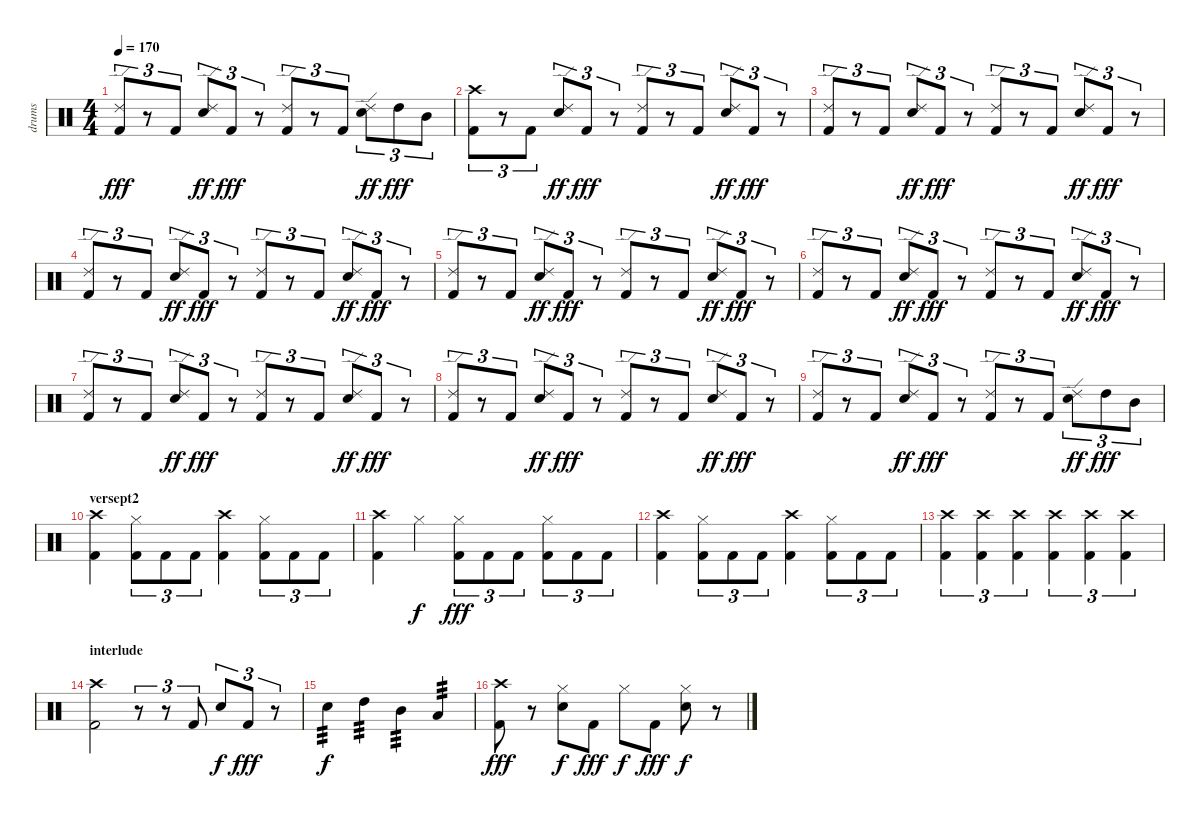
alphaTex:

\track ("drums" "drums") {instrument percussion}
\staff {score}
\articulation defaults
\ts (4 4)
\tempo 170
\clef neutral
\ks c
("Ride (edge) 2" "Kick (hit) 2").8{tu (3 2) dy fff} r.8{tu (3 2)} "Kick (hit) 2".8{tu (3 2)} ("Ride (edge) 2" "Snare (hit) 2").8{tu (3 2) dy ff} "Kick (hit) 2".8{tu (3 2) dy fff} r.8{tu (3 2)} ("Ride (edge) 2" "Kick (hit) 2").8{tu (3 2)} r.8{tu (3 2)} "Kick (hit) 2".8{tu (3 2)} ("Ride (edge) 2" "Snare (hit) 2").8{tu (3 2) dy ff} "High Tom (hit)".8{tu (3 2) dy fff} "Mid Tom (hit)".8{tu (3 2)} |
("Crash high (hit)" "Kick (hit) 2").8{tu (3 2)} r.8{tu (3 2)} "Kick (hit) 2".8{tu (3 2)} ("Ride (edge) 2" "Snare (hit) 2").8{tu (3 2) dy ff} "Kick (hit) 2".8{tu (3 2) dy fff} r.8{tu (3 2)} ("Ride (edge) 2" "Kick (hit) 2").8{tu (3 2)} r.8{tu (3 2)} "Kick (hit) 2".8{tu (3 2)} ("Ride (edge) 2" "Snare (hit) 2").8{tu (3 2) dy ff} "Kick (hit) 2".8{tu (3 2) dy fff} r.8{tu (3 2)} |
("Ride (edge) 2" "Kick (hit) 2").8{tu (3 2)} r.8{tu (3 2)} "Kick (hit) 2".8{tu (3 2)} ("Ride (edge) 2" "Snare (hit) 2").8{tu (3 2) dy ff} "Kick (hit) 2".8{tu (3 2) dy fff} r.8{tu (3 2)} ("Ride (edge) 2" "Kick (hit) 2").8{tu (3 2)} r.8{tu (3 2)} "Kick (hit) 2".8{tu (3 2)} ("Ride (edge) 2" "Snare (hit) 2").8{tu (3 2) dy ff} "Kick (hit) 2".8{tu (3 2) dy fff} r.8{tu (3 2)} |
("Ride (edge) 2" "Kick (hit) 2").8{tu (3 2)} r.8{tu (3 2)} "Kick (hit) 2".8{tu (3 2)} ("Ride (edge) 2" "Snare (hit) 2").8{tu (3 2) dy ff} "Kick (hit) 2".8{tu (3 2) dy fff} r.8{tu (3 2)} ("Ride (edge) 2" "Kick (hit) 2").8{tu (3 2)} r.8{tu (3 2)} "Kick (hit) 2".8{tu (3 2)} ("Ride (edge) 2" "Snare (hit) 2").8{tu (3 2) dy ff} "Kick (hit) 2".8{tu (3 2) dy fff} r.8{tu (3 2)} |
("Ride (edge) 2" "Kick (hit) 2").8{tu (3 2)} r.8{tu (3 2)} "Kick (hit) 2".8{tu (3 2)} ("Ride (edge) 2" "Snare (hit) 2").8{tu (3 2) dy ff} "Kick (hit) 2".8{tu (3 2) dy fff} r.8{tu (3 2)} ("Ride (edge) 2" "Kick (hit) 2").8{tu (3 2)} r.8{tu (3 2)} "Kick (hit) 2".8{tu (3 2)} ("Ride (edge) 2" "Snare (hit) 2").8{tu (3 2) dy ff} "Kick (hit) 2".8{tu (3 2) dy fff} r.8{tu (3 2)} |
("Ride (edge) 2" "Kick (hit) 2").8{tu (3 2)} r.8{tu (3 2)} "Kick (hit) 2".8{tu (3 2)} ("Ride (edge) 2" "Snare (hit) 2").8{tu (3 2) dy ff} "Kick (hit) 2".8{tu (3 2) dy fff} r.8{tu (3 2)} ("Ride (edge) 2" "Kick (hit) 2").8{tu (3 2)} r.8{tu (3 2)} "Kick (hit) 2".8{tu (3 2)} ("Ride (edge) 2" "Snare (hit) 2").8{tu (3 2) dy ff} "Kick (hit) 2".8{tu (3 2) dy fff} r.8{tu (3 2)} |
("Ride (edge) 2" "Kick (hit) 2").8{tu (3 2)} r.8{tu (3 2)} "Kick (hit) 2".8{tu (3 2)} ("Ride (edge) 2" "Snare (hit) 2").8{tu (3 2) dy ff} "Kick (hit) 2".8{tu (3 2) dy fff} r.8{tu (3 2)} ("Ride (edge) 2" "Kick (hit) 2").8{tu (3 2)} r.8{tu (3 2)} "Kick (hit) 2".8{tu (3 2)} ("Ride (edge) 2" "Snare (hit) 2").8{tu (3 2) dy ff} "Kick (hit) 2".8{tu (3 2) dy fff} r.8{tu (3 2)} |
("Ride (edge) 2" "Kick (hit) 2").8{tu (3 2)} r.8{tu (3 2)} "Kick (hit) 2".8{tu (3 2)} ("Ride (edge) 2" "Snare (hit) 2").8{tu (3 2) dy ff} "Kick (hit) 2".8{tu (3 2) dy fff} r.8{tu (3 2)} ("Ride (edge) 2" "Kick (hit) 2").8{tu (3 2)} r.8{tu (3 2)} "Kick (hit) 2".8{tu (3 2)} ("Ride (edge) 2" "Snare (hit) 2").8{tu (3 2) dy ff} "Kick (hit) 2".8{tu (3 2) dy fff} r.8{tu (3 2)} |
("Ride (edge) 2" "Kick (hit) 2").8{tu (3 2)} r.8{tu (3 2)} "Kick (hit) 2".8{tu (3 2)} ("Ride (edge) 2" "Snare (hit) 2").8{tu (3 2) dy ff} "Kick (hit) 2".8{tu (3 2) dy fff} r.8{tu (3 2)} ("Ride (edge) 2" "Kick (hit) 2").8{tu (3 2)} r.8{tu (3 2)} "Kick (hit) 2".8{tu (3 2)} ("Ride (edge) 2" "Snare (hit) 2").8{tu (3 2) dy ff} "High Tom (hit)".8{tu (3 2) dy fff} "Mid Tom (hit)".8{tu (3 2)} |
\section ("" "versept2")
("Crash high (hit)" "Kick (hit) 2").4 ("Hi-Hat (closed)" "Kick (hit) 2").8{tu (3 2)} "Kick (hit) 2".8{tu (3 2)} "Kick (hit) 2".8{tu (3 2)} ("Crash high (hit)" "Kick (hit) 2").4 ("Hi-Hat (closed)" "Kick (hit) 2").8{tu (3 2)} "Kick (hit) 2".8{tu (3 2)} "Kick (hit) 2".8{tu (3 2)} |
("Crash high (hit)" "Kick (hit) 2").4 "Hi-Hat (closed)".4{dy f} ("Hi-Hat (closed)" "Kick (hit) 2").8{tu (3 2) dy fff} "Kick (hit) 2".8{tu (3 2)} "Kick (hit) 2".8{tu (3 2)} ("Hi-Hat (closed)" "Kick (hit) 2").8{tu (3 2)} "Kick (hit) 2".8{tu (3 2)} "Kick (hit) 2".8{tu (3 2)} |
("Crash high (hit)" "Kick (hit) 2").4 ("Hi-Hat (closed)" "Kick (hit) 2").8{tu (3 2)} "Kick (hit) 2".8{tu (3 2)} "Kick (hit) 2".8{tu (3 2)} ("Crash high (hit)" "Kick (hit) 2").4 ("Hi-Hat (closed)" "Kick (hit) 2").8{tu (3 2)} "Kick (hit) 2".8{tu (3 2)} "Kick (hit) 2".8{tu (3 2)} |
("Crash high (hit)" "Kick (hit) 2").4{tu (3 2)} ("Crash high (hit)" "Kick (hit) 2").4{tu (3 2)} ("Crash high (hit)" "Kick (hit) 2").4{tu (3 2)} ("Crash high (hit)" "Kick (hit) 2").4{tu (3 2)} ("Crash high (hit)" "Kick (hit) 2").4{tu (3 2)} ("Crash high (hit)" "Kick (hit) 2").4{tu (3 2)} |
\section ("" "interlude")
("Crash high (hit)" "Kick (hit) 2").2 r.8{tu (3 2)} r.8{tu (3 2)} "Kick (hit) 2".8{tu (3 2)} "Snare (hit) 2".8{tu (3 2) dy f} "Kick (hit) 2".8{tu (3 2) dy fff} r.8{tu (3 2)} |
"Snare (hit) 2".4{tp 3 dy f} "High Tom (hit)".4{tp 3} "Mid Tom (hit)".4{tp 3} "Low Tom (hit)".4{tp 3} |
("Crash high (hit)" "Kick (hit) 2").8{dy fff} r.8 ("Hi-Hat (closed)" "Snare (hit) 2").8{dy f} "Kick (hit) 2".8{dy fff} "Hi-Hat (closed)".8{dy f} "Kick (hit) 2".8{dy fff} ("Hi-Hat (closed)" "Snare (hit) 2").8{dy f} r.8
